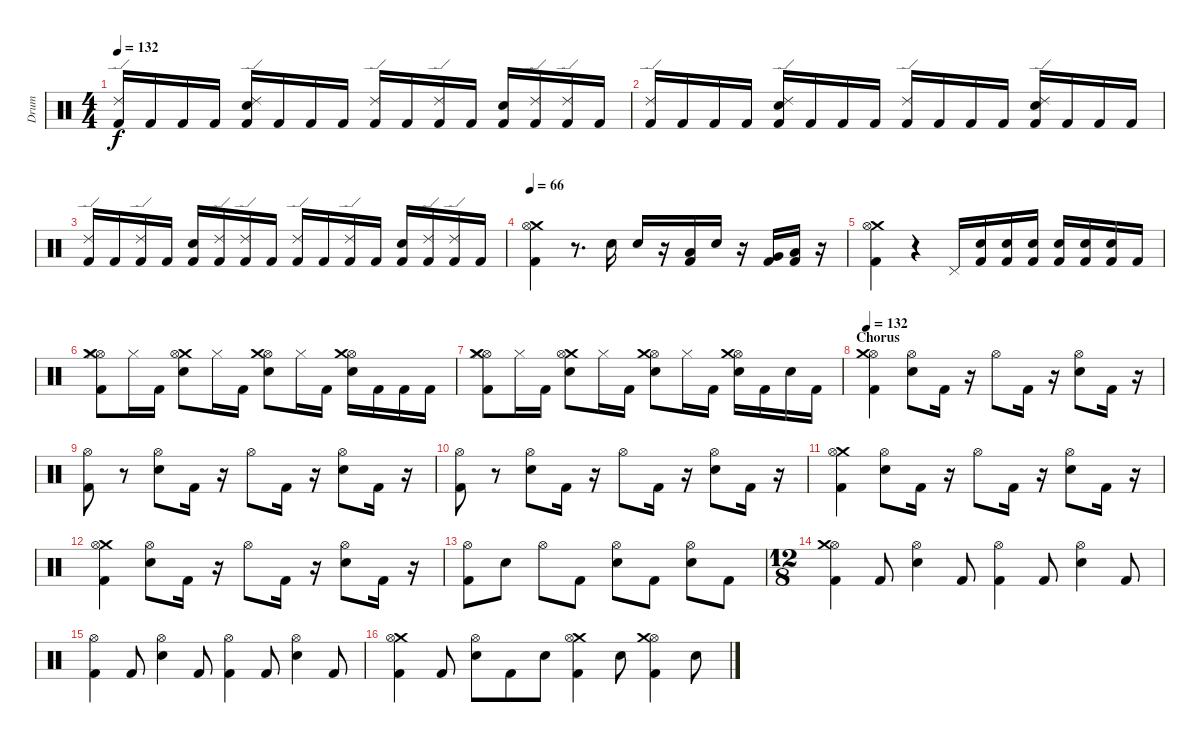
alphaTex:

\track (" Drum" " Drum") {instrument percussion}
\staff {score}
\articulation defaults
\ts (4 4)
\tempo 132
\clef neutral
\ks c
("Ride (edge) 2" "Kick (hit) 2").16{dy f} "Kick (hit) 2".16 "Kick (hit) 2".16 "Kick (hit) 2".16 ("Ride (edge) 2" "Electric Snare (hit)" "Kick (hit) 2").16 "Kick (hit) 2".16 "Kick (hit) 2".16 "Kick (hit) 2".16 ("Ride (edge) 2" "Kick (hit) 2").16 "Kick (hit) 2".16 ("Ride (edge) 2" "Kick (hit) 2").16 "Kick (hit) 2".16 ("Electric Snare (hit)" "Kick (hit) 2").16 ("Ride (edge) 2" "Kick (hit) 2").16 ("Ride (edge) 2" "Kick (hit) 2").16 "Kick (hit) 2".16 |
("Ride (edge) 2" "Kick (hit) 2").16 "Kick (hit) 2".16 "Kick (hit) 2".16 "Kick (hit) 2".16 ("Ride (edge) 2" "Electric Snare (hit)" "Kick (hit) 2").16 "Kick (hit) 2".16 "Kick (hit) 2".16 "Kick (hit) 2".16 ("Ride (edge) 2" "Kick (hit) 2").16 "Kick (hit) 2".16 "Kick (hit) 2".16 "Kick (hit) 2".16 ("Ride (edge) 2" "Electric Snare (hit)" "Kick (hit) 2").16 "Kick (hit) 2".16 "Kick (hit) 2".16 "Kick (hit) 2".16 |
("Ride (edge) 2" "Kick (hit) 2").16 "Kick (hit) 2".16 ("Ride (edge) 2" "Kick (hit) 2").16 "Kick (hit) 2".16 ("Electric Snare (hit)" "Kick (hit) 2").16 ("Ride (edge) 2" "Kick (hit) 2").16 ("Ride (edge) 2" "Kick (hit) 2").16 "Kick (hit) 2".16 ("Ride (edge) 2" "Kick (hit) 2").16 "Kick (hit) 2".16 ("Ride (edge) 2" "Kick (hit) 2").16 "Kick (hit) 2".16 ("Electric Snare (hit)" "Kick (hit) 2").16 ("Ride (edge) 2" "Kick (hit) 2").16 ("Ride (edge) 2" "Kick (hit) 2").16 "Kick (hit) 2".16 |
\tempo 66
("Crash medium (hit)" "Hi-Hat (open)" "Kick (hit) 2").4 r.8{d} "Electric Snare (hit)".16 "Electric Snare (hit)".16 r.16 ("Kick (hit) 2" "Low Tom (hit)").16 "Electric Snare (hit)".16 r.16 ("Kick (hit) 2" "Very Low Tom (hit)").16 ("Low Floor Tom (hit)" "Kick (hit) 2").16 r.16 |
("Crash medium (hit)" "Hi-Hat (open)" "Kick (hit) 2").4 r.4 "Pedal Hi-Hat (hit)".16 ("Kick (hit) 2" "Electric Snare (hit)").16 ("Kick (hit) 2" "Electric Snare (hit)").16 ("Kick (hit) 2" "Electric Snare (hit)").16 ("Kick (hit) 2" "Electric Snare (hit)").16 ("Kick (hit) 2" "Electric Snare (hit)").16 ("Kick (hit) 2" "Electric Snare (hit)").16 "Kick (hit) 2".16 |
("Kick (hit) 2" "Hi-Hat (open)" "Crash medium (hit)" "Hi-Hat (closed)").8 "Hi-Hat (closed)".16 "Kick (hit) 2".16 ("Electric Snare (hit)" "Crash medium (hit)" "Hi-Hat (open)").8 "Hi-Hat (closed)".16 "Kick (hit) 2".16 ("Electric Snare (hit)" "Hi-Hat (open)" "Crash medium (hit)").8 "Hi-Hat (closed)".16 "Kick (hit) 2".16 ("Electric Snare (hit)" "Hi-Hat (open)" "Crash medium (hit)").16 "Kick (hit) 2".16 "Kick (hit) 2".16 "Kick (hit) 2".16 |
("Kick (hit) 2" "Hi-Hat (open)" "Crash medium (hit)" "Hi-Hat (closed)").8 "Hi-Hat (closed)".16 "Kick (hit) 2".16 ("Electric Snare (hit)" "Crash medium (hit)" "Hi-Hat (open)").8 "Hi-Hat (closed)".16 "Kick (hit) 2".16 ("Electric Snare (hit)" "Hi-Hat (open)" "Crash medium (hit)").8 "Hi-Hat (closed)".16 "Kick (hit) 2".16 ("Electric Snare (hit)" "Hi-Hat (open)" "Crash medium (hit)").16 "Kick (hit) 2".16 "Electric Snare (hit)".16 "Kick (hit) 2".16 |
\section ("" "Chorus")
\tempo 132
("Kick (hit) 2" "Hi-Hat (open)" "Crash medium (hit)").4 ("Electric Snare (hit)" "Hi-Hat (open)").8 "Kick (hit) 2".16 r.16 "Hi-Hat (open)".8 "Kick (hit) 2".16 r.16 ("Electric Snare (hit)" "Hi-Hat (open)").8 "Kick (hit) 2".16 r.16 |
("Hi-Hat (open)" "Kick (hit) 2").8 r.8 ("Electric Snare (hit)" "Hi-Hat (open)").8 "Kick (hit) 2".16 r.16 "Hi-Hat (open)".8 "Kick (hit) 2".16 r.16 ("Electric Snare (hit)" "Hi-Hat (open)").8 "Kick (hit) 2".16 r.16 |
("Hi-Hat (open)" "Kick (hit) 2").8 r.8 ("Electric Snare (hit)" "Hi-Hat (open)").8 "Kick (hit) 2".16 r.16 "Hi-Hat (open)".8 "Kick (hit) 2".16 r.16 ("Electric Snare (hit)" "Hi-Hat (open)").8 "Kick (hit) 2".16 r.16 |
("Crash medium (hit)" "Hi-Hat (open)" "Kick (hit) 2").4 ("Electric Snare (hit)" "Hi-Hat (open)").8 "Kick (hit) 2".16 r.16 "Hi-Hat (open)".8 "Kick (hit) 2".16 r.16 ("Electric Snare (hit)" "Hi-Hat (open)").8 "Kick (hit) 2".16 r.16 |
("Crash medium (hit)" "Hi-Hat (open)" "Kick (hit) 2").4 ("Electric Snare (hit)" "Hi-Hat (open)").8 "Kick (hit) 2".16 r.16 "Hi-Hat (open)".8 "Kick (hit) 2".16 r.16 ("Electric Snare (hit)" "Hi-Hat (open)").8 "Kick (hit) 2".16 r.16 |
("Kick (hit) 2" "Hi-Hat (open)").8 "Electric Snare (hit)".8 "Hi-Hat (open)".8 "Kick (hit) 2".8 ("Electric Snare (hit)" "Hi-Hat (open)").8 "Kick (hit) 2".8 ("Electric Snare (hit)" "Hi-Hat (open)").8 "Kick (hit) 2".8 |
\ts (12 8)
("Hi-Hat (open)" "Kick (hit) 2" "Crash medium (hit)").4 "Kick (hit) 2".8 ("Hi-Hat (open)" "Electric Snare (hit)").4 "Kick (hit) 2".8 ("Hi-Hat (open)" "Kick (hit) 2").4 "Kick (hit) 2".8 ("Hi-Hat (open)" "Electric Snare (hit)").4 "Kick (hit) 2".8 |
("Hi-Hat (open)" "Kick (hit) 2").4 "Kick (hit) 2".8 ("Hi-Hat (open)" "Electric Snare (hit)").4 "Kick (hit) 2".8 ("Hi-Hat (open)" "Kick (hit) 2").4 "Kick (hit) 2".8 ("Hi-Hat (open)" "Electric Snare (hit)").4 "Kick (hit) 2".8 |
("Crash medium (hit)" "Hi-Hat (open)" "Kick (hit) 2").4 "Kick (hit) 2".8 ("Hi-Hat (open)" "Electric Snare (hit)").8 "Kick (hit) 2".8 "Electric Snare (hit)".8 ("Crash medium (hit)" "Hi-Hat (open)" "Kick (hit) 2").4 "Electric Snare (hit)".8 ("Hi-Hat (open)" "Kick (hit) 2" "Crash medium (hit)").4 "Electric Snare (hit)".8
